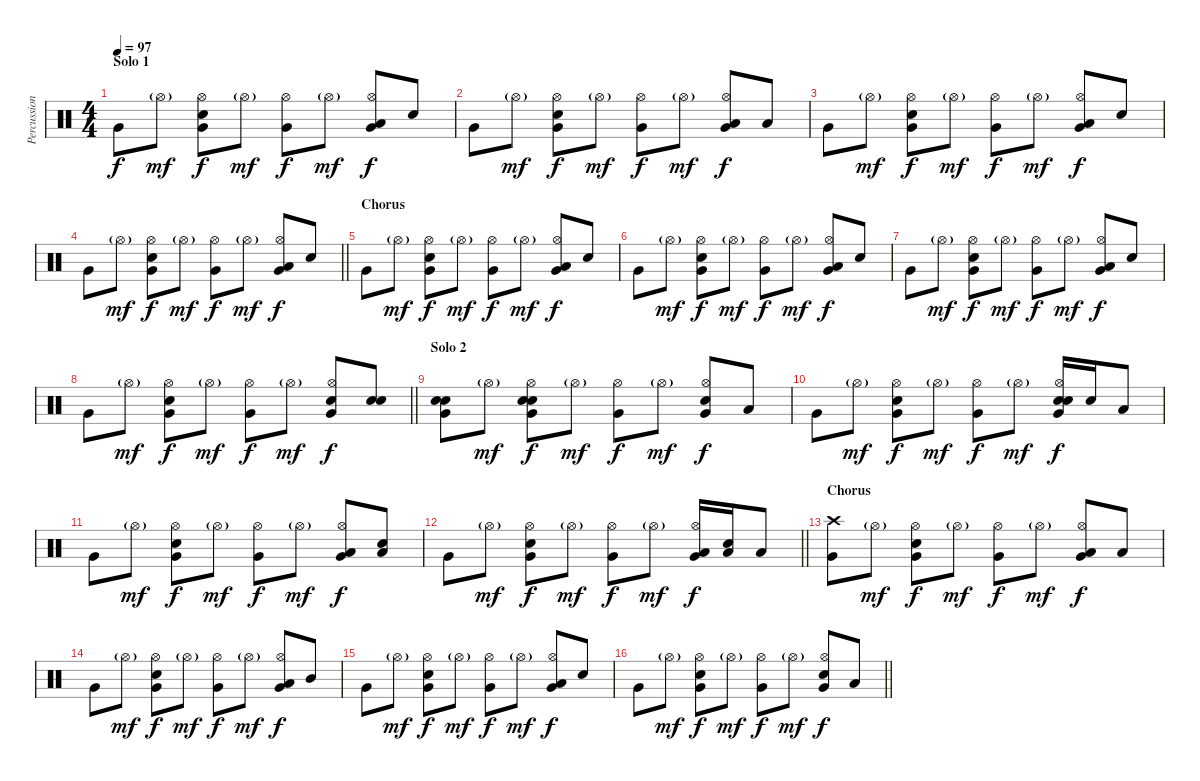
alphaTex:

\track ("Percussion" "Percussion") {instrument percussion}
\staff {score}
\articulation defaults
\ts (4 4)
\section ("" "Solo 1")
\tempo 97
\clef neutral
\ks c "Very Low Tom (hit)".8{dy f} "Hi-Hat (open)"{g}.8{dy mf}
("Hi-Hat (open)" "Very Low Tom (hit)" "Snare (hit) 2").8{dy f} "Hi-Hat (open)"{g}.8{dy mf} ("Hi-Hat (open)" "Very Low Tom (hit)").8{dy f} "Hi-Hat (open)"{g}.8{dy mf} ("Hi-Hat (open)" "Very Low Tom (hit)" "Low Tom (hit)").8{dy f} "Snare (hit) 2".8 |
"Very Low Tom (hit)".8 "Hi-Hat (open)"{g}.8{dy mf} ("Hi-Hat (open)" "Very Low Tom (hit)" "Snare (hit) 2").8{dy f} "Hi-Hat (open)"{g}.8{dy mf} ("Hi-Hat (open)" "Very Low Tom (hit)").8{dy f} "Hi-Hat (open)"{g}.8{dy mf} ("Hi-Hat (open)" "Very Low Tom (hit)" "Low Tom (hit)").8{dy f} "Low Floor Tom (hit)".8 |
"Very Low Tom (hit)".8 "Hi-Hat (open)"{g}.8{dy mf} ("Hi-Hat (open)" "Very Low Tom (hit)" "Snare (hit) 2").8{dy f} "Hi-Hat (open)"{g}.8{dy mf} ("Hi-Hat (open)" "Very Low Tom (hit)").8{dy f} "Hi-Hat (open)"{g}.8{dy mf} ("Hi-Hat (open)" "Very Low Tom (hit)" "Low Tom (hit)").8{dy f} "Snare (hit) 2".8 |
\barLineRight lightlight "Very Low Tom (hit)".8 "Hi-Hat (open)"{g}.8{dy mf}
("Hi-Hat (open)" "Very Low Tom (hit)" "Snare (hit) 2").8{dy f} "Hi-Hat (open)"{g}.8{dy mf} ("Hi-Hat (open)" "Very Low Tom (hit)").8{dy f} "Hi-Hat (open)"{g}.8{dy mf} ("Hi-Hat (open)" "Very Low Tom (hit)" "Low Tom (hit)").8{dy f} "Snare (hit) 2".8 |
\section ("" "Chorus")
"Very Low Tom (hit)".8 "Hi-Hat (open)"{g}.8{dy mf} ("Hi-Hat (open)" "Very Low Tom (hit)" "Snare (hit) 2").8{dy f} "Hi-Hat (open)"{g}.8{dy mf} ("Hi-Hat (open)" "Very Low Tom (hit)").8{dy f} "Hi-Hat (open)"{g}.8{dy mf} ("Hi-Hat (open)" "Very Low Tom (hit)" "Low Tom (hit)").8{dy f} "Snare (hit) 2".8 |
"Very Low Tom (hit)".8 "Hi-Hat (open)"{g}.8{dy mf} ("Hi-Hat (open)" "Very Low Tom (hit)" "Snare (hit) 2").8{dy f} "Hi-Hat (open)"{g}.8{dy mf} ("Hi-Hat (open)" "Very Low Tom (hit)").8{dy f} "Hi-Hat (open)"{g}.8{dy mf} ("Hi-Hat (open)" "Very Low Tom (hit)" "Low Tom (hit)").8{dy f} "Snare (hit) 2".8 |
"Very Low Tom (hit)".8 "Hi-Hat (open)"{g}.8{dy mf} ("Hi-Hat (open)" "Very Low Tom (hit)" "Snare (hit) 2").8{dy f} "Hi-Hat (open)"{g}.8{dy mf} ("Hi-Hat (open)" "Very Low Tom (hit)").8{dy f} "Hi-Hat (open)"{g}.8{dy mf} ("Hi-Hat (open)" "Very Low Tom (hit)" "Low Tom (hit)").8{dy f} "Snare (hit) 2".8 |
\barLineRight lightlight "Very Low Tom (hit)".8 "Hi-Hat (open)"{g}.8{dy mf}
("Hi-Hat (open)" "Very Low Tom (hit)" "Snare (hit) 2").8{dy f} "Hi-Hat (open)"{g}.8{dy mf} ("Hi-Hat (open)" "Very Low Tom (hit)").8{dy f} "Hi-Hat (open)"{g}.8{dy mf} ("Hi-Hat (open)" "Very Low Tom (hit)" "Snare (hit) 2").8{dy f} ("Snare (hit) 2" "Snare (hit) 2").8 |
\section ("" "Solo 2")
("Very Low Tom (hit)" "Snare (hit) 2" "Snare (hit) 2").8 "Hi-Hat (open)"{g}.8{dy mf} ("Hi-Hat (open)" "Very Low Tom (hit)" "Snare (hit) 2" "Snare (hit) 2").8{dy f} "Hi-Hat (open)"{g}.8{dy mf} ("Hi-Hat (open)" "Very Low Tom (hit)").8{dy f} "Hi-Hat (open)"{g}.8{dy mf} ("Hi-Hat (open)" "Very Low Tom (hit)" "Snare (hit) 2").8{dy f} "Low Tom (hit)".8 |
"Very Low Tom (hit)".8 "Hi-Hat (open)"{g}.8{dy mf} ("Hi-Hat (open)" "Very Low Tom (hit)" "Snare (hit) 2").8{dy f} "Hi-Hat (open)"{g}.8{dy mf} ("Hi-Hat (open)" "Very Low Tom (hit)").8{dy f} "Hi-Hat (open)"{g}.8{dy mf} ("Hi-Hat (open)" "Very Low Tom (hit)" "Snare (hit) 2" "Snare (hit) 2").16{dy f} "Snare (hit) 2".16 "Low Floor Tom (hit)".8 |
"Very Low Tom (hit)".8 "Hi-Hat (open)"{g}.8{dy mf} ("Hi-Hat (open)" "Very Low Tom (hit)" "Snare (hit) 2").8{dy f} "Hi-Hat (open)"{g}.8{dy mf} ("Hi-Hat (open)" "Very Low Tom (hit)").8{dy f} "Hi-Hat (open)"{g}.8{dy mf} ("Hi-Hat (open)" "Very Low Tom (hit)" "Low Tom (hit)").8{dy f} ("Low Tom (hit)" "Snare (hit) 2").8 |
\barLineRight lightlight "Very Low Tom (hit)".8 "Hi-Hat (open)"{g}.8{dy mf}
("Hi-Hat (open)" "Very Low Tom (hit)" "Snare (hit) 2").8{dy f} "Hi-Hat (open)"{g}.8{dy mf} ("Hi-Hat (open)" "Very Low Tom (hit)").8{dy f} "Hi-Hat (open)"{g}.8{dy mf} ("Hi-Hat (open)" "Very Low Tom (hit)" "Low Tom (hit)").16{dy f} ("Low Tom (hit)" "Snare (hit) 2").16 "Low Floor Tom (hit)".8 |
\section ("" "Chorus")
("Crash high (hit)" "Very Low Tom (hit)").8 "Hi-Hat (open)"{g}.8{dy mf} ("Hi-Hat (open)" "Very Low Tom (hit)" "Snare (hit) 2").8{dy f} "Hi-Hat (open)"{g}.8{dy mf} ("Hi-Hat (open)" "Very Low Tom (hit)").8{dy f} "Hi-Hat (open)"{g}.8{dy mf} ("Hi-Hat (open)" "Very Low Tom (hit)" "Low Tom (hit)").8{dy f} "Low Tom (hit)".8 |
"Very Low Tom (hit)".8 "Hi-Hat (open)"{g}.8{dy mf} ("Hi-Hat (open)" "Very Low Tom (hit)" "Snare (hit) 2").8{dy f} "Hi-Hat (open)"{g}.8{dy mf} ("Hi-Hat (open)" "Very Low Tom (hit)").8{dy f} "Hi-Hat (open)"{g}.8{dy mf} ("Hi-Hat (open)" "Very Low Tom (hit)" "Low Tom (hit)").8{dy f} "Mid Tom (hit)".8 |
"Very Low Tom (hit)".8 "Hi-Hat (open)"{g}.8{dy mf} ("Hi-Hat (open)" "Very Low Tom (hit)" "Snare (hit) 2").8{dy f} "Hi-Hat (open)"{g}.8{dy mf} ("Hi-Hat (open)" "Very Low Tom (hit)").8{dy f} "Hi-Hat (open)"{g}.8{dy mf} ("Hi-Hat (open)" "Very Low Tom (hit)" "Low Tom (hit)").8{dy f} "Snare (hit) 2".8 |
\barLineRight lightlight "Very Low Tom (hit)".8 "Hi-Hat (open)"{g}.8{dy mf}
("Hi-Hat (open)" "Very Low Tom (hit)" "Snare (hit) 2").8{dy f} "Hi-Hat (open)"{g}.8{dy mf} ("Hi-Hat (open)" "Very Low Tom (hit)").8{dy f} "Hi-Hat (open)"{g}.8{dy mf} ("Hi-Hat (open)" "Very Low Tom (hit)" "Snare (hit) 2").8{dy f} "Low Tom (hit)".8
